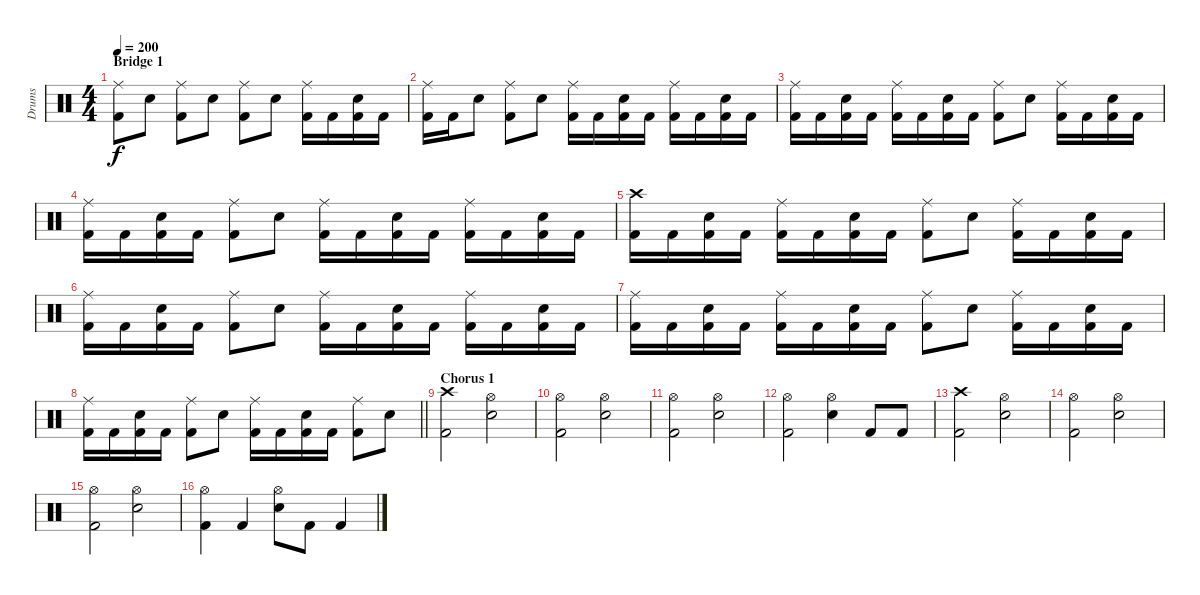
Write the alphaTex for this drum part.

\track ("Drums" "Drums") {instrument percussion}
\staff {score}
\articulation defaults
\ts (4 4)
\section ("" "Bridge 1")
\tempo 200
\clef neutral
\ks c
("Ride (middle)" "Kick (hit) 2").8{dy f} "Electric Snare (hit)".8 ("Ride (middle)" "Kick (hit) 2").8 "Electric Snare (hit)".8 ("Ride (middle)" "Kick (hit) 2").8 "Electric Snare (hit)".8 ("Ride (middle)" "Kick (hit) 2").16 "Kick (hit) 2".16 ("Electric Snare (hit)" "Kick (hit) 2").16 "Kick (hit) 2".16 |
("Ride (middle)" "Kick (hit) 2").16 "Kick (hit) 2".16 "Electric Snare (hit)".8 ("Ride (middle)" "Kick (hit) 2").8 "Electric Snare (hit)".8 ("Ride (middle)" "Kick (hit) 2").16 "Kick (hit) 2".16 ("Electric Snare (hit)" "Kick (hit) 2").16 "Kick (hit) 2".16 ("Ride (middle)" "Kick (hit) 2").16 "Kick (hit) 2".16 ("Electric Snare (hit)" "Kick (hit) 2").16 "Kick (hit) 2".16 |
("Ride (middle)" "Kick (hit) 2").16 "Kick (hit) 2".16 ("Electric Snare (hit)" "Kick (hit) 2").16 "Kick (hit) 2".16 ("Ride (middle)" "Kick (hit) 2").16 "Kick (hit) 2".16 ("Electric Snare (hit)" "Kick (hit) 2").16 "Kick (hit) 2".16 ("Ride (middle)" "Kick (hit) 2").8 "Electric Snare (hit)".8 ("Ride (middle)" "Kick (hit) 2").16 "Kick (hit) 2".16 ("Electric Snare (hit)" "Kick (hit) 2").16 "Kick (hit) 2".16 |
("Ride (middle)" "Kick (hit) 2").16 "Kick (hit) 2".16 ("Electric Snare (hit)" "Kick (hit) 2").16 "Kick (hit) 2".16 ("Ride (middle)" "Kick (hit) 2").8 "Electric Snare (hit)".8 ("Ride (middle)" "Kick (hit) 2").16 "Kick (hit) 2".16 ("Electric Snare (hit)" "Kick (hit) 2").16 "Kick (hit) 2".16 ("Ride (middle)" "Kick (hit) 2").16 "Kick (hit) 2".16 ("Electric Snare (hit)" "Kick (hit) 2").16 "Kick (hit) 2".16 |
("Crash high (hit)" "Kick (hit) 2").16 "Kick (hit) 2".16 ("Electric Snare (hit)" "Kick (hit) 2").16 "Kick (hit) 2".16 ("Ride (middle)" "Kick (hit) 2").16 "Kick (hit) 2".16 ("Electric Snare (hit)" "Kick (hit) 2").16 "Kick (hit) 2".16 ("Ride (middle)" "Kick (hit) 2").8 "Electric Snare (hit)".8 ("Ride (middle)" "Kick (hit) 2").16 "Kick (hit) 2".16 ("Electric Snare (hit)" "Kick (hit) 2").16 "Kick (hit) 2".16 |
("Ride (middle)" "Kick (hit) 2").16 "Kick (hit) 2".16 ("Electric Snare (hit)" "Kick (hit) 2").16 "Kick (hit) 2".16 ("Ride (middle)" "Kick (hit) 2").8 "Electric Snare (hit)".8 ("Ride (middle)" "Kick (hit) 2").16 "Kick (hit) 2".16 ("Electric Snare (hit)" "Kick (hit) 2").16 "Kick (hit) 2".16 ("Ride (middle)" "Kick (hit) 2").16 "Kick (hit) 2".16 ("Electric Snare (hit)" "Kick (hit) 2").16 "Kick (hit) 2".16 |
("Ride (middle)" "Kick (hit) 2").16 "Kick (hit) 2".16 ("Electric Snare (hit)" "Kick (hit) 2").16 "Kick (hit) 2".16 ("Ride (middle)" "Kick (hit) 2").16 "Kick (hit) 2".16 ("Electric Snare (hit)" "Kick (hit) 2").16 "Kick (hit) 2".16 ("Ride (middle)" "Kick (hit) 2").8 "Electric Snare (hit)".8 ("Ride (middle)" "Kick (hit) 2").16 "Kick (hit) 2".16 ("Electric Snare (hit)" "Kick (hit) 2").16 "Kick (hit) 2".16 |
\barLineRight lightlight
("Ride (middle)" "Kick (hit) 2").16 "Kick (hit) 2".16 ("Electric Snare (hit)" "Kick (hit) 2").16 "Kick (hit) 2".16 ("Ride (middle)" "Kick (hit) 2").8 "Electric Snare (hit)".8 ("Ride (middle)" "Kick (hit) 2").16 "Kick (hit) 2".16 ("Electric Snare (hit)" "Kick (hit) 2").16 "Kick (hit) 2".16 ("Ride (middle)" "Kick (hit) 2").8 "Electric Snare (hit)".8 |
\section ("" "Chorus 1")
("Crash high (hit)" "Kick (hit) 2").2 ("Hi-Hat (open)" "Electric Snare (hit)").2 |
("Hi-Hat (open)" "Kick (hit) 2").2 ("Hi-Hat (open)" "Electric Snare (hit)").2 |
("Hi-Hat (open)" "Kick (hit) 2").2 ("Hi-Hat (open)" "Electric Snare (hit)").2 |
("Hi-Hat (open)" "Kick (hit) 2").2 ("Hi-Hat (open)" "Electric Snare (hit)").4 "Kick (hit) 2".8 "Kick (hit) 2".8 |
("Crash high (hit)" "Kick (hit) 2").2 ("Hi-Hat (open)" "Electric Snare (hit)").2 |
("Hi-Hat (open)" "Kick (hit) 2").2 ("Hi-Hat (open)" "Electric Snare (hit)").2 |
("Hi-Hat (open)" "Kick (hit) 2").2 ("Hi-Hat (open)" "Electric Snare (hit)").2 |
("Hi-Hat (open)" "Kick (hit) 2").4 "Kick (hit) 2".4 ("Hi-Hat (open)" "Electric Snare (hit)").8 "Kick (hit) 2".8 "Kick (hit) 2".4
